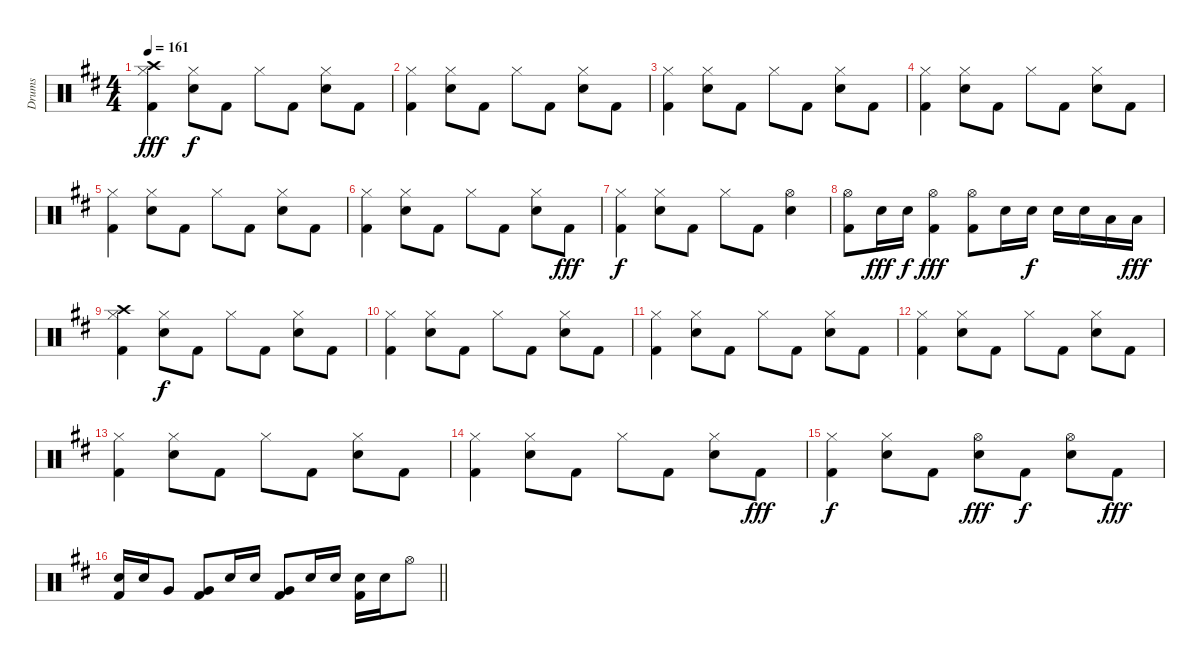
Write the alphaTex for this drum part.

\track ("Drums" "Drums") {instrument percussion}
\staff {score}
\articulation defaults
\ts (4 4)
\tempo 161
\clef neutral
\ks d
("Hi-Hat (closed)" "Crash high (hit)" "Kick (hit) 2").4{dy fff} ("Hi-Hat (closed)" "Electric Snare (hit)").8{dy f} "Kick (hit) 2".8 "Hi-Hat (closed)".8 "Kick (hit) 2".8 ("Hi-Hat (closed)" "Electric Snare (hit)").8 "Kick (hit) 2".8 |
("Hi-Hat (closed)" "Kick (hit) 2").4 ("Hi-Hat (closed)" "Electric Snare (hit)").8 "Kick (hit) 2".8 "Hi-Hat (closed)".8 "Kick (hit) 2".8 ("Hi-Hat (closed)" "Electric Snare (hit)").8 "Kick (hit) 2".8 |
("Hi-Hat (closed)" "Kick (hit) 2").4 ("Hi-Hat (closed)" "Electric Snare (hit)").8 "Kick (hit) 2".8 "Hi-Hat (closed)".8 "Kick (hit) 2".8 ("Hi-Hat (closed)" "Electric Snare (hit)").8 "Kick (hit) 2".8 |
("Hi-Hat (closed)" "Kick (hit) 2").4 ("Hi-Hat (closed)" "Electric Snare (hit)").8 "Kick (hit) 2".8 "Hi-Hat (closed)".8 "Kick (hit) 2".8 ("Hi-Hat (closed)" "Electric Snare (hit)").8 "Kick (hit) 2".8 |
("Hi-Hat (closed)" "Kick (hit) 2").4 ("Hi-Hat (closed)" "Electric Snare (hit)").8 "Kick (hit) 2".8 "Hi-Hat (closed)".8 "Kick (hit) 2".8 ("Hi-Hat (closed)" "Electric Snare (hit)").8 "Kick (hit) 2".8 |
("Hi-Hat (closed)" "Kick (hit) 2").4 ("Hi-Hat (closed)" "Electric Snare (hit)").8 "Kick (hit) 2".8 "Hi-Hat (closed)".8 "Kick (hit) 2".8 ("Hi-Hat (closed)" "Electric Snare (hit)").8 "Kick (hit) 2".8{dy fff} |
("Hi-Hat (closed)" "Kick (hit) 2").4{dy f} ("Hi-Hat (closed)" "Electric Snare (hit)").8 "Kick (hit) 2".8 "Hi-Hat (closed)".8 "Kick (hit) 2".8 ("Hi-Hat (open)" "Electric Snare (hit)").4 |
("Hi-Hat (open)" "Kick (hit) 2").8 "Electric Snare (hit)".16{dy fff} "Electric Snare (hit)".16{dy f} ("Hi-Hat (open)" "Kick (hit) 2").4{dy fff} ("Hi-Hat (open)" "Kick (hit) 2").8 "Electric Snare (hit)".16 "Electric Snare (hit)".16{dy f} "Electric Snare (hit)".16 "Electric Snare (hit)".16 "Low Tom (hit)".16 "Low Tom (hit)".16{dy fff} |
("Hi-Hat (closed)" "Crash high (hit)" "Kick (hit) 2").4 ("Hi-Hat (closed)" "Electric Snare (hit)").8{dy f} "Kick (hit) 2".8 "Hi-Hat (closed)".8 "Kick (hit) 2".8 ("Hi-Hat (closed)" "Electric Snare (hit)").8 "Kick (hit) 2".8 |
("Hi-Hat (closed)" "Kick (hit) 2").4 ("Hi-Hat (closed)" "Electric Snare (hit)").8 "Kick (hit) 2".8 "Hi-Hat (closed)".8 "Kick (hit) 2".8 ("Hi-Hat (closed)" "Electric Snare (hit)").8 "Kick (hit) 2".8 |
("Hi-Hat (closed)" "Kick (hit) 2").4 ("Hi-Hat (closed)" "Electric Snare (hit)").8 "Kick (hit) 2".8 "Hi-Hat (closed)".8 "Kick (hit) 2".8 ("Hi-Hat (closed)" "Electric Snare (hit)").8 "Kick (hit) 2".8 |
("Hi-Hat (closed)" "Kick (hit) 2").4 ("Hi-Hat (closed)" "Electric Snare (hit)").8 "Kick (hit) 2".8 "Hi-Hat (closed)".8 "Kick (hit) 2".8 ("Hi-Hat (closed)" "Electric Snare (hit)").8 "Kick (hit) 2".8 |
("Hi-Hat (closed)" "Kick (hit) 2").4 ("Hi-Hat (closed)" "Electric Snare (hit)").8 "Kick (hit) 2".8 "Hi-Hat (closed)".8 "Kick (hit) 2".8 ("Hi-Hat (closed)" "Electric Snare (hit)").8 "Kick (hit) 2".8 |
("Hi-Hat (closed)" "Kick (hit) 2").4 ("Hi-Hat (closed)" "Electric Snare (hit)").8 "Kick (hit) 2".8 "Hi-Hat (closed)".8 "Kick (hit) 2".8 ("Hi-Hat (closed)" "Electric Snare (hit)").8 "Kick (hit) 2".8{dy fff} |
("Hi-Hat (closed)" "Kick (hit) 2").4{dy f} ("Hi-Hat (closed)" "Electric Snare (hit)").8 "Kick (hit) 2".8 ("Hi-Hat (open)" "Electric Snare (hit)").8{dy fff} "Kick (hit) 2".8{dy f} ("Hi-Hat (open)" "Electric Snare (hit)").8 "Kick (hit) 2".8{dy fff} |
\barLineRight lightlight
("Electric Snare (hit)" "Kick (hit) 2").16 "Electric Snare (hit)".16 "Very Low Tom (hit)".8 ("Very Low Tom (hit)" "Kick (hit) 2").8 "Electric Snare (hit)".16 "Electric Snare (hit)".16 ("Very Low Tom (hit)" "Kick (hit) 2").8 "Electric Snare (hit)".16 "Electric Snare (hit)".16 ("Electric Snare (hit)" "Kick (hit) 2").16 "Electric Snare (hit)".16 "Hi-Hat (open)".8
